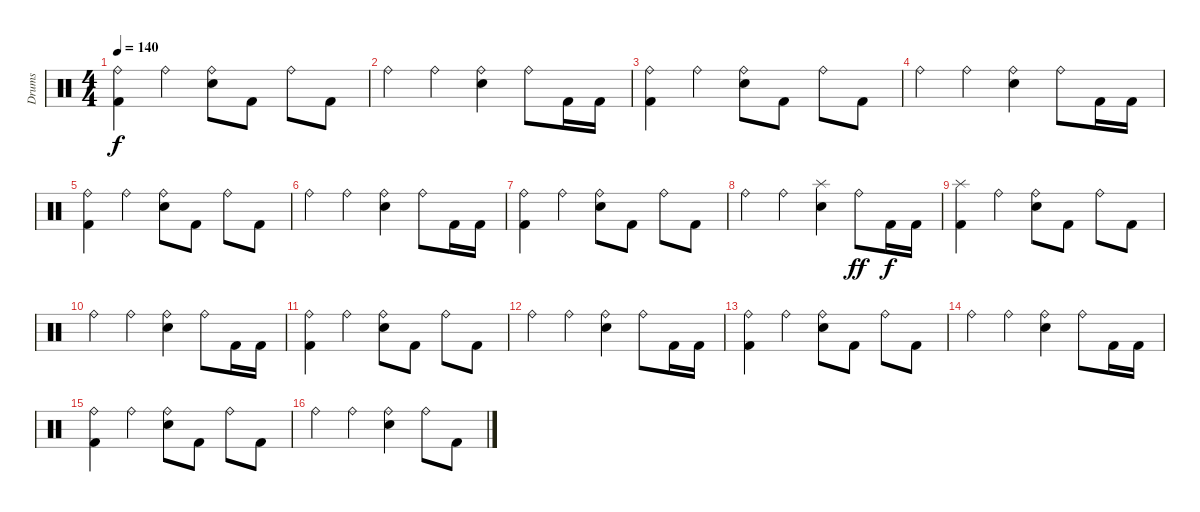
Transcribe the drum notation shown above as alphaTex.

\track ("Drums" "Drums") {instrument percussion}
\staff {score}
\articulation defaults
\ts (4 4)
\tempo 140
\clef neutral
\ks c
("Ride (bell)" "Kick (hit) 2").4{dy f} "Ride (bell)".4 ("Ride (bell)" "Electric Snare (hit)").8 "Kick (hit) 2".8 "Ride (bell)".8 "Kick (hit) 2".8 |
"Ride (bell)".4 "Ride (bell)".4 ("Ride (bell)" "Electric Snare (hit)").4 "Ride (bell)".8 "Kick (hit) 2".16 "Kick (hit) 2".16 |
("Ride (bell)" "Kick (hit) 2").4 "Ride (bell)".4 ("Ride (bell)" "Electric Snare (hit)").8 "Kick (hit) 2".8 "Ride (bell)".8 "Kick (hit) 2".8 |
"Ride (bell)".4 "Ride (bell)".4 ("Ride (bell)" "Electric Snare (hit)").4 "Ride (bell)".8 "Kick (hit) 2".16 "Kick (hit) 2".16 |
("Ride (bell)" "Kick (hit) 2").4 "Ride (bell)".4 ("Ride (bell)" "Electric Snare (hit)").8 "Kick (hit) 2".8 "Ride (bell)".8 "Kick (hit) 2".8 |
"Ride (bell)".4 "Ride (bell)".4 ("Ride (bell)" "Electric Snare (hit)").4 "Ride (bell)".8 "Kick (hit) 2".16 "Kick (hit) 2".16 |
("Ride (bell)" "Kick (hit) 2").4 "Ride (bell)".4 ("Ride (bell)" "Electric Snare (hit)").8 "Kick (hit) 2".8 "Ride (bell)".8 "Kick (hit) 2".8 |
"Ride (bell)".4 "Ride (bell)".4 ("Splash (hit)" "Electric Snare (hit)").4 "Ride (bell)".8{dy ff} "Kick (hit) 2".16{dy f} "Kick (hit) 2".16 |
("Splash (hit)" "Kick (hit) 2").4 "Ride (bell)".4 ("Ride (bell)" "Electric Snare (hit)").8 "Kick (hit) 2".8 "Ride (bell)".8 "Kick (hit) 2".8 |
"Ride (bell)".4 "Ride (bell)".4 ("Ride (bell)" "Electric Snare (hit)").4 "Ride (bell)".8 "Kick (hit) 2".16 "Kick (hit) 2".16 |
("Ride (bell)" "Kick (hit) 2").4 "Ride (bell)".4 ("Ride (bell)" "Electric Snare (hit)").8 "Kick (hit) 2".8 "Ride (bell)".8 "Kick (hit) 2".8 |
"Ride (bell)".4 "Ride (bell)".4 ("Ride (bell)" "Electric Snare (hit)").4 "Ride (bell)".8 "Kick (hit) 2".16 "Kick (hit) 2".16 |
("Ride (bell)" "Kick (hit) 2").4 "Ride (bell)".4 ("Ride (bell)" "Electric Snare (hit)").8 "Kick (hit) 2".8 "Ride (bell)".8 "Kick (hit) 2".8 |
"Ride (bell)".4 "Ride (bell)".4 ("Ride (bell)" "Electric Snare (hit)").4 "Ride (bell)".8 "Kick (hit) 2".16 "Kick (hit) 2".16 |
("Ride (bell)" "Kick (hit) 2").4 "Ride (bell)".4 ("Ride (bell)" "Electric Snare (hit)").8 "Kick (hit) 2".8 "Ride (bell)".8 "Kick (hit) 2".8 |
"Ride (bell)".4 "Ride (bell)".4 ("Ride (bell)" "Electric Snare (hit)").4 "Ride (bell)".8 "Kick (hit) 2".8
